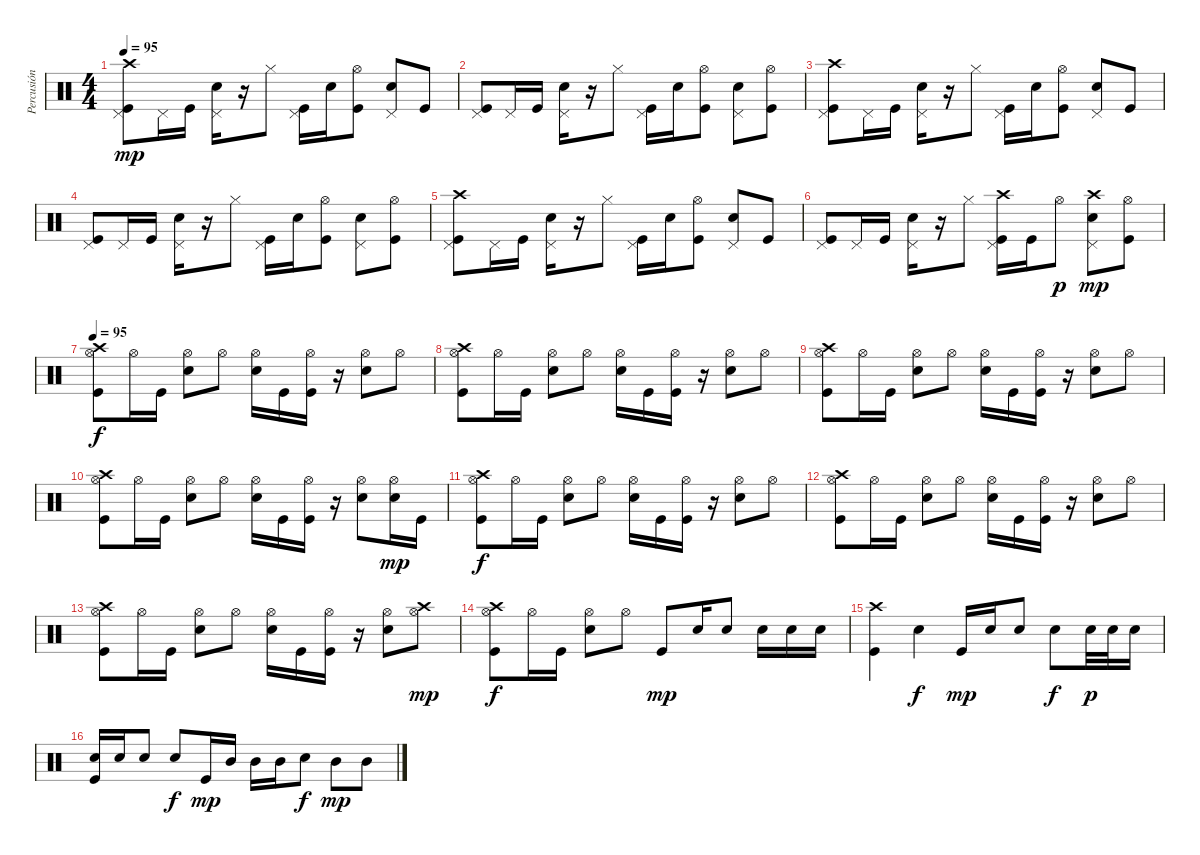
\track ("Percusión" "Percusión") {instrument percussion}
\staff {score}
\articulation defaults
\ts (4 4)
\tempo 95
\clef neutral
\ks c
("Pedal Hi-Hat (hit)" "Kick (hit)" "Crash high (hit)").8{dy mp} "Pedal Hi-Hat (hit)".16 "Kick (hit)".16 ("Pedal Hi-Hat (hit)" "Snare (hit) 2").16 r.16 "Hi-Hat (closed)".8 ("Pedal Hi-Hat (hit)" "Kick (hit)").16 "Snare (hit) 2".16 ("Hi-Hat (open)" "Kick (hit)").8 ("Pedal Hi-Hat (hit)" "Snare (hit) 2").8 "Kick (hit)".8 |
("Pedal Hi-Hat (hit)" "Kick (hit)").8 "Pedal Hi-Hat (hit)".16 "Kick (hit)".16 ("Pedal Hi-Hat (hit)" "Snare (hit) 2").16 r.16 "Hi-Hat (closed)".8 ("Pedal Hi-Hat (hit)" "Kick (hit)").16 "Snare (hit) 2".16 ("Hi-Hat (open)" "Kick (hit)").8 ("Pedal Hi-Hat (hit)" "Snare (hit) 2").8 ("Hi-Hat (open)" "Kick (hit)").8 |
("Pedal Hi-Hat (hit)" "Kick (hit)" "Crash high (hit)").8 "Pedal Hi-Hat (hit)".16 "Kick (hit)".16 ("Pedal Hi-Hat (hit)" "Snare (hit) 2").16 r.16 "Hi-Hat (closed)".8 ("Pedal Hi-Hat (hit)" "Kick (hit)").16 "Snare (hit) 2".16 ("Hi-Hat (open)" "Kick (hit)").8 ("Pedal Hi-Hat (hit)" "Snare (hit) 2").8 "Kick (hit)".8 |
("Pedal Hi-Hat (hit)" "Kick (hit)").8 "Pedal Hi-Hat (hit)".16 "Kick (hit)".16 ("Pedal Hi-Hat (hit)" "Snare (hit) 2").16 r.16 "Hi-Hat (closed)".8 ("Pedal Hi-Hat (hit)" "Kick (hit)").16 "Snare (hit) 2".16 ("Hi-Hat (open)" "Kick (hit)").8 ("Pedal Hi-Hat (hit)" "Snare (hit) 2").8 ("Hi-Hat (open)" "Kick (hit)").8 |
("Pedal Hi-Hat (hit)" "Kick (hit)" "Crash high (hit)").8 "Pedal Hi-Hat (hit)".16 "Kick (hit)".16 ("Pedal Hi-Hat (hit)" "Snare (hit) 2").16 r.16 "Hi-Hat (closed)".8 ("Pedal Hi-Hat (hit)" "Kick (hit)").16 "Snare (hit) 2".16 ("Hi-Hat (open)" "Kick (hit)").8 ("Pedal Hi-Hat (hit)" "Snare (hit) 2").8 "Kick (hit)".8 |
("Pedal Hi-Hat (hit)" "Kick (hit)").8 "Pedal Hi-Hat (hit)".16 "Kick (hit)".16 ("Pedal Hi-Hat (hit)" "Snare (hit) 2").16 r.16 "Hi-Hat (closed)".8 ("Pedal Hi-Hat (hit)" "Kick (hit)" "Crash high (hit)").16 "Kick (hit)".16 "Hi-Hat (open)".8{dy p} ("Pedal Hi-Hat (hit)" "Snare (hit) 2" "Crash high (hit)").8{dy mp} ("Hi-Hat (open)" "Kick (hit)").8 |
\tempo 95
("Kick (hit)" "Crash high (hit)" "Hi-Hat (open)").8{dy f} "Hi-Hat (open)".16 "Kick (hit)".16 ("Snare (hit) 2" "Hi-Hat (open)").8 "Hi-Hat (open)".8 ("Snare (hit) 2" "Hi-Hat (open)").16 "Kick (hit)".16 ("Kick (hit)" "Hi-Hat (open)").16 r.16 ("Snare (hit) 2" "Hi-Hat (open)").8 "Hi-Hat (open)".8 |
("Kick (hit)" "Crash high (hit)" "Hi-Hat (open)").8 "Hi-Hat (open)".16 "Kick (hit)".16 ("Snare (hit) 2" "Hi-Hat (open)").8 "Hi-Hat (open)".8 ("Snare (hit) 2" "Hi-Hat (open)").16 "Kick (hit)".16 ("Kick (hit)" "Hi-Hat (open)").16 r.16 ("Snare (hit) 2" "Hi-Hat (open)").8 "Hi-Hat (open)".8 |
("Kick (hit)" "Crash high (hit)" "Hi-Hat (open)").8 "Hi-Hat (open)".16 "Kick (hit)".16 ("Snare (hit) 2" "Hi-Hat (open)").8 "Hi-Hat (open)".8 ("Snare (hit) 2" "Hi-Hat (open)").16 "Kick (hit)".16 ("Kick (hit)" "Hi-Hat (open)").16 r.16 ("Snare (hit) 2" "Hi-Hat (open)").8 "Hi-Hat (open)".8 |
("Kick (hit)" "Crash high (hit)" "Hi-Hat (open)").8 "Hi-Hat (open)".16 "Kick (hit)".16 ("Snare (hit) 2" "Hi-Hat (open)").8 "Hi-Hat (open)".8 ("Snare (hit) 2" "Hi-Hat (open)").16 "Kick (hit)".16 ("Kick (hit)" "Hi-Hat (open)").16 r.16 ("Snare (hit) 2" "Hi-Hat (open)").8 ("Snare (hit) 2" "Hi-Hat (open)").16{dy mp} "Kick (hit)".16 |
("Kick (hit)" "Crash high (hit)" "Hi-Hat (open)").8{dy f} "Hi-Hat (open)".16 "Kick (hit)".16 ("Snare (hit) 2" "Hi-Hat (open)").8 "Hi-Hat (open)".8 ("Snare (hit) 2" "Hi-Hat (open)").16 "Kick (hit)".16 ("Kick (hit)" "Hi-Hat (open)").16 r.16 ("Snare (hit) 2" "Hi-Hat (open)").8 "Hi-Hat (open)".8 |
("Kick (hit)" "Crash high (hit)" "Hi-Hat (open)").8 "Hi-Hat (open)".16 "Kick (hit)".16 ("Snare (hit) 2" "Hi-Hat (open)").8 "Hi-Hat (open)".8 ("Snare (hit) 2" "Hi-Hat (open)").16 "Kick (hit)".16 ("Kick (hit)" "Hi-Hat (open)").16 r.16 ("Snare (hit) 2" "Hi-Hat (open)").8 "Hi-Hat (open)".8 |
("Kick (hit)" "Crash high (hit)" "Hi-Hat (open)").8 "Hi-Hat (open)".16 "Kick (hit)".16 ("Snare (hit) 2" "Hi-Hat (open)").8 "Hi-Hat (open)".8 ("Snare (hit) 2" "Hi-Hat (open)").16 "Kick (hit)".16 ("Kick (hit)" "Hi-Hat (open)").16 r.16 ("Snare (hit) 2" "Hi-Hat (open)").8 ("Crash high (hit)" "Hi-Hat (open)").8{dy mp} |
("Kick (hit)" "Crash high (hit)" "Hi-Hat (open)").8{dy f} "Hi-Hat (open)".16 "Kick (hit)".16 ("Snare (hit) 2" "Hi-Hat (open)").8 "Hi-Hat (open)".8 "Kick (hit)".8{dy mp} "Snare (hit) 2".16 "Snare (hit) 2".8 "Snare (hit) 2".16 "Snare (hit) 2".16 "Snare (hit) 2".16 |
("Kick (hit)" "Crash high (hit)").4 "Snare (hit) 2".4{dy f} "Kick (hit)".16{dy mp} "Snare (hit) 2".16 "Snare (hit) 2".8 "Snare (hit) 2".8{dy f} "Snare (hit) 2".32{dy p} "Snare (hit) 2".32 "Snare (hit) 2".16 |
("Snare (hit) 2" "Kick (hit)").16 "Snare (hit) 2".16 "Snare (hit) 2".8 "Snare (hit) 2".8{dy f} "Kick (hit)".16{dy mp} "Mid Tom (hit)".16 "Mid Tom (hit)".16 "Mid Tom (hit)".16 "Snare (hit) 2".8{dy f} "Mid Tom (hit)".8{dy mp} "Mid Tom (hit)".8
